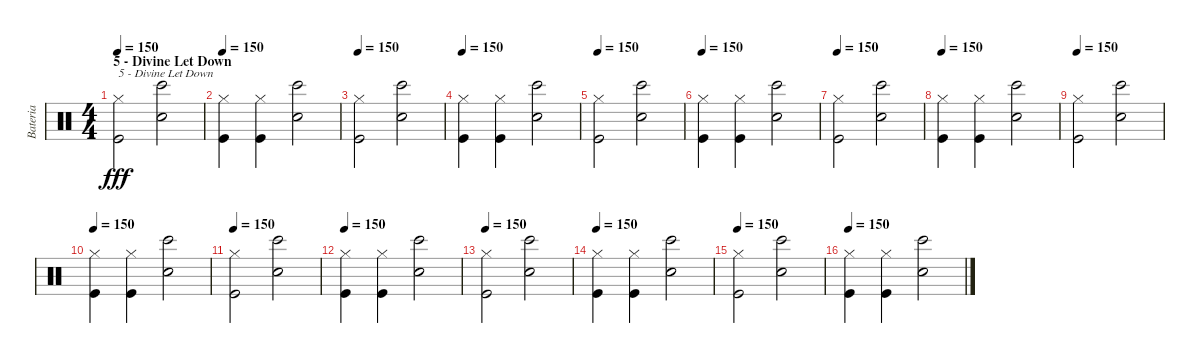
\track ("Bateria" "Bateria") {instrument percussion}
\staff {score}
\articulation defaults
\ts (4 4)
\section ("" "5 - Divine Let Down")
\tempo 150
\clef neutral
\ks c
("Kick (hit)" "Hi-Hat (closed)").2{txt "5 - Divine Let Down" dy fff} ("Electric Snare (hit)" "Bongo High (hit)").2 |
\tempo 150
("Kick (hit)" "Hi-Hat (closed)").4 ("Kick (hit)" "Hi-Hat (closed)").4 ("Electric Snare (hit)" "Bongo High (hit)").2 |
\tempo 150
("Kick (hit)" "Hi-Hat (closed)").2 ("Electric Snare (hit)" "Bongo High (hit)").2 |
\tempo 150
("Kick (hit)" "Hi-Hat (closed)").4 ("Kick (hit)" "Hi-Hat (closed)").4 ("Electric Snare (hit)" "Bongo High (hit)").2 |
\tempo 150
("Kick (hit)" "Hi-Hat (closed)").2 ("Electric Snare (hit)" "Bongo High (hit)").2 |
\tempo 150
("Kick (hit)" "Hi-Hat (closed)").4 ("Kick (hit)" "Hi-Hat (closed)").4 ("Electric Snare (hit)" "Bongo High (hit)").2 |
\tempo 150
("Kick (hit)" "Hi-Hat (closed)").2 ("Electric Snare (hit)" "Bongo High (hit)").2 |
\tempo 150
("Kick (hit)" "Hi-Hat (closed)").4 ("Kick (hit)" "Hi-Hat (closed)").4 ("Electric Snare (hit)" "Bongo High (hit)").2 |
\tempo 150
("Kick (hit)" "Hi-Hat (closed)").2 ("Electric Snare (hit)" "Bongo High (hit)").2 |
\tempo 150
("Kick (hit)" "Hi-Hat (closed)").4 ("Kick (hit)" "Hi-Hat (closed)").4 ("Electric Snare (hit)" "Bongo High (hit)").2 |
\tempo 150
("Kick (hit)" "Hi-Hat (closed)").2 ("Electric Snare (hit)" "Bongo High (hit)").2 |
\tempo 150
("Kick (hit)" "Hi-Hat (closed)").4 ("Kick (hit)" "Hi-Hat (closed)").4 ("Electric Snare (hit)" "Bongo High (hit)").2 |
\tempo 150
("Kick (hit)" "Hi-Hat (closed)").2 ("Electric Snare (hit)" "Bongo High (hit)").2 |
\tempo 150
("Kick (hit)" "Hi-Hat (closed)").4 ("Kick (hit)" "Hi-Hat (closed)").4 ("Electric Snare (hit)" "Bongo High (hit)").2 |
\tempo 150
("Kick (hit)" "Hi-Hat (closed)").2 ("Electric Snare (hit)" "Bongo High (hit)").2 |
\tempo 150
("Kick (hit)" "Hi-Hat (closed)").4 ("Kick (hit)" "Hi-Hat (closed)").4 ("Electric Snare (hit)" "Bongo High (hit)").2
